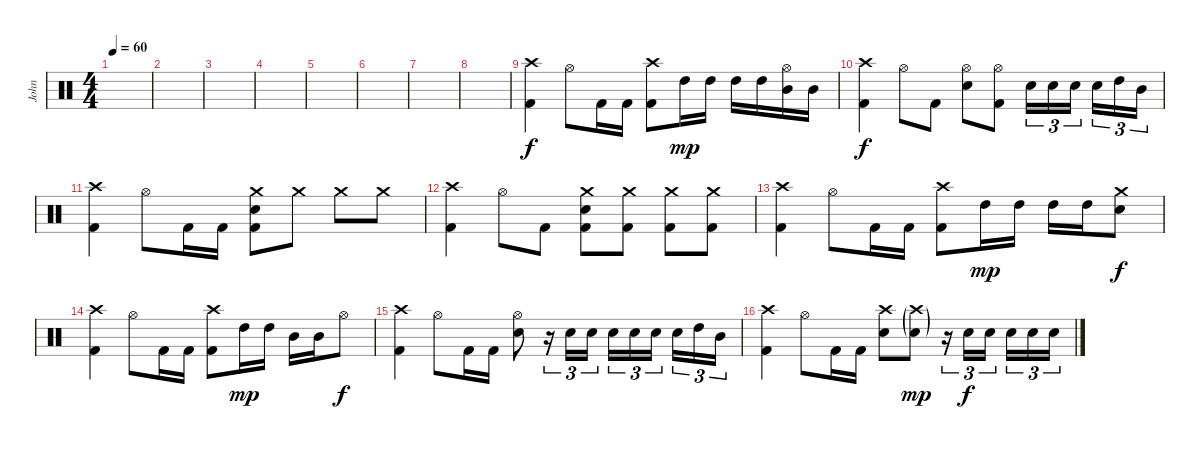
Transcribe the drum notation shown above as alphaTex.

\track ("John" "John") {instrument percussion}
\staff {score}
\articulation defaults
\ts (4 4)
\tempo 60
\clef neutral
\ks c
|
|
|
|
|
|
|
|
("Crash high (hit)" "Kick (hit) 2").4 "Hi-Hat (open)".8 "Kick (hit) 2".16 "Kick (hit) 2".16 ("Crash high (hit)" "Kick (hit) 2").8 "High Tom (hit)".16{dy mp} "High Tom (hit)".16 "High Tom (hit)".16 "High Tom (hit)".16 ("Hi-Hat (open)" "Mid Tom (hit)").16 "Mid Tom (hit)".16 |
("Crash high (hit)" "Kick (hit) 2").4{dy f} "Hi-Hat (open)".8 "Kick (hit) 2".8 ("Hi-Hat (open)" "Snare (hit) 2").8 ("Hi-Hat (open)" "Kick (hit) 2").8 "Snare (hit) 2".16{tu (3 2)} "Snare (hit) 2".16{tu (3 2)} "Snare (hit) 2".16{tu (3 2)} "Snare (hit) 2".16{tu (3 2)} "High Tom (hit)".16{tu (3 2)} "Mid Tom (hit)".16{tu (3 2)} |
("Crash high (hit)" "Kick (hit) 2").4 "Hi-Hat (open)".8 "Kick (hit) 2".16 "Kick (hit) 2".16 ("Crash medium (hit)" "Snare (hit) 2" "Kick (hit) 2").8 "Crash medium (hit)".8 "Crash medium (hit)".8 "Crash medium (hit)".8 |
("Crash high (hit)" "Kick (hit) 2").4 "Hi-Hat (open)".8 "Kick (hit) 2".8 ("Crash medium (hit)" "Snare (hit) 2" "Kick (hit) 2").8 ("Crash medium (hit)" "Kick (hit) 2").8 ("Crash medium (hit)" "Kick (hit) 2").8 ("Crash medium (hit)" "Kick (hit) 2").8 |
("Crash high (hit)" "Kick (hit) 2").4 "Hi-Hat (open)".8 "Kick (hit) 2".16 "Kick (hit) 2".16 ("Crash high (hit)" "Kick (hit) 2").8 "High Tom (hit)".16{dy mp} "High Tom (hit)".16 "High Tom (hit)".16 "High Tom (hit)".16 ("Crash medium (hit)" "Snare (hit) 2").8{dy f} |
("Crash high (hit)" "Kick (hit) 2").4 "Hi-Hat (open)".8 "Kick (hit) 2".16 "Kick (hit) 2".16 ("Crash high (hit)" "Kick (hit) 2").8 "High Tom (hit)".16{dy mp} "High Tom (hit)".16 "Mid Tom (hit)".16 "Mid Tom (hit)".16 "Hi-Hat (open)".8{dy f} |
("Crash high (hit)" "Kick (hit) 2").4 "Hi-Hat (open)".8 "Kick (hit) 2".16 "Kick (hit) 2".16 ("Hi-Hat (open)" "Snare (hit) 2").8 r.16{tu (3 2)} "Snare (hit) 2".16{tu (3 2)} "Snare (hit) 2".16{tu (3 2)} "Snare (hit) 2".16{tu (3 2)} "Snare (hit) 2".16{tu (3 2)} "Snare (hit) 2".16{tu (3 2)} "Snare (hit) 2".16{tu (3 2)} "High Tom (hit)".16{tu (3 2)} "Mid Tom (hit)".16{tu (3 2)} |
("Crash high (hit)" "Kick (hit) 2").4 "Hi-Hat (open)".8 "Kick (hit) 2".16 "Kick (hit) 2".16 ("Crash high (hit)" "Snare (hit) 2").8 ("Crash high (hit)"{g} "Snare (hit) 2"{g}).8{dy mp} r.16{tu (3 2)} "Snare (hit) 2".16{tu (3 2) dy f} "Snare (hit) 2".16{tu (3 2)} "Snare (hit) 2".16{tu (3 2)} "Snare (hit) 2".16{tu (3 2)} "Snare (hit) 2".16{tu (3 2)}
